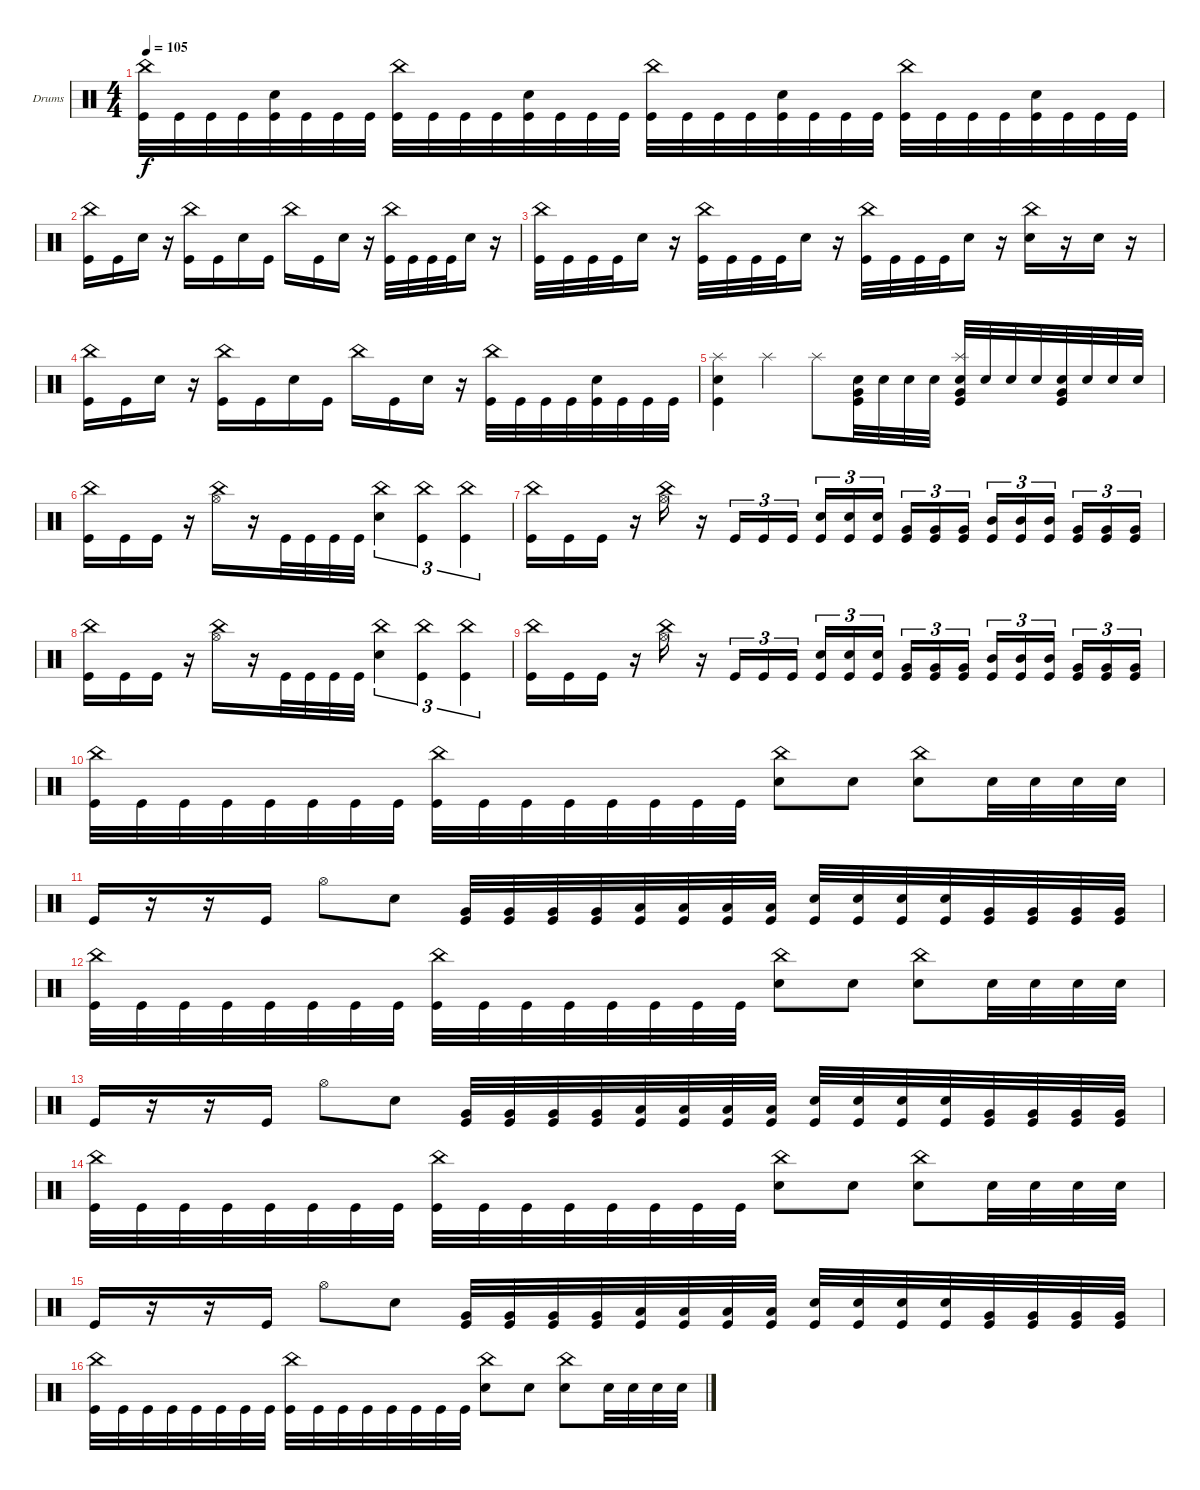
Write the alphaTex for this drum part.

\bracketExtendMode groupsimilarinstruments
\firstSystemTrackNameOrientation horizontal
\otherSystemsTrackNameOrientation horizontal
\track ("Drumkit" "Drums") {instrument percussion}
\staff {score}
\articulation defaults
\ts (4 4)
\tempo 105
\clef neutral
\ks c
("China (hit)" "Kick (hit)").32{dy f} "Kick (hit)".32 "Kick (hit)".32 "Kick (hit)".32 ("Snare (hit) 2" "Kick (hit)").32 "Kick (hit)".32 "Kick (hit)".32 "Kick (hit)".32 ("China (hit)" "Kick (hit)").32 "Kick (hit)".32 "Kick (hit)".32 "Kick (hit)".32 ("Snare (hit) 2" "Kick (hit)").32 "Kick (hit)".32 "Kick (hit)".32 "Kick (hit)".32 ("China (hit)" "Kick (hit)").32 "Kick (hit)".32 "Kick (hit)".32 "Kick (hit)".32 ("Snare (hit) 2" "Kick (hit)").32 "Kick (hit)".32 "Kick (hit)".32 "Kick (hit)".32 ("China (hit)" "Kick (hit)").32 "Kick (hit)".32 "Kick (hit)".32 "Kick (hit)".32 ("Snare (hit) 2" "Kick (hit)").32 "Kick (hit)".32 "Kick (hit)".32 "Kick (hit)".32 |
("China (hit)" "Kick (hit)").16 "Kick (hit)".16 "Snare (hit) 2".16 r.16 ("China (hit)" "Kick (hit)").16 "Kick (hit)".16 "Snare (hit) 2".16 "Kick (hit)".16 "China (hit)".16 "Kick (hit)".16 "Snare (hit) 2".16 r.16 ("China (hit)" "Kick (hit)").32 "Kick (hit)".32 "Kick (hit)".32 "Kick (hit)".32 "Snare (hit) 2".16 r.16 |
("China (hit)" "Kick (hit)").32 "Kick (hit)".32 "Kick (hit)".32 "Kick (hit)".32 "Snare (hit) 2".16 r.16 ("China (hit)" "Kick (hit)").32 "Kick (hit)".32 "Kick (hit)".32 "Kick (hit)".32 "Snare (hit) 2".16 r.16 ("China (hit)" "Kick (hit)").32 "Kick (hit)".32 "Kick (hit)".32 "Kick (hit)".32 "Snare (hit) 2".16 r.16 ("China (hit)" "Snare (hit) 2").16 r.16 "Snare (hit) 2".16 r.16 |
("China (hit)" "Kick (hit)").16 "Kick (hit)".16 "Snare (hit) 2".16 r.16 ("China (hit)" "Kick (hit)").16 "Kick (hit)".16 "Snare (hit) 2".16 "Kick (hit)".16 "China (hit)".16 "Kick (hit)".16 "Snare (hit) 2".16 r.16 ("China (hit)" "Kick (hit)").32 "Kick (hit)".32 "Kick (hit)".32 "Kick (hit)".32 ("Snare (hit) 2" "Kick (hit)").32 "Kick (hit)".32 "Kick (hit)".32 "Kick (hit)".32 |
("Splash (hit)" "Snare (hit) 2" "Kick (hit)").4 "Splash (hit)".4 "Splash (hit)".8 ("Very Low Tom (hit)" "Snare (hit) 2" "Kick (hit)").32 "Snare (hit) 2".32 "Snare (hit) 2".32 "Snare (hit) 2".32 ("Splash (hit)" "Very Low Tom (hit)" "Snare (hit) 2" "Kick (hit)").32 "Snare (hit) 2".32 "Snare (hit) 2".32 "Snare (hit) 2".32 ("Very Low Tom (hit)" "Snare (hit) 2" "Kick (hit)").32 "Snare (hit) 2".32 "Snare (hit) 2".32 "Snare (hit) 2".32 |
("China (hit)" "Kick (hit)").16 "Kick (hit)".16 "Kick (hit)".16 r.16 ("China (hit)" "Hi-Hat (open)").16 r.16 "Kick (hit)".32 "Kick (hit)".32 "Kick (hit)".32 "Kick (hit)".32 ("China (hit)" "Snare (hit) 2").4{tu (3 2)} ("China (hit)" "Kick (hit)").4{tu (3 2)} ("China (hit)" "Kick (hit)").4{tu (3 2)} |
("China (hit)" "Kick (hit)").16 "Kick (hit)".16 "Kick (hit)".16 r.16 ("China (hit)" "Hi-Hat (open)").16 r.16 "Kick (hit)".16{tu (3 2)} "Kick (hit)".16{tu (3 2)} "Kick (hit)".16{tu (3 2)} ("Snare (hit) 2" "Kick (hit)").16{tu (3 2)} ("Snare (hit) 2" "Kick (hit)").16{tu (3 2)} ("Snare (hit) 2" "Kick (hit)").16{tu (3 2)} ("Very Low Tom (hit)" "Kick (hit)").16{tu (3 2)} ("Very Low Tom (hit)" "Kick (hit)").16{tu (3 2)} ("Very Low Tom (hit)" "Kick (hit)").16{tu (3 2)} ("Mid Tom (hit)" "Kick (hit)").16{tu (3 2)} ("Mid Tom (hit)" "Kick (hit)").16{tu (3 2)} ("Mid Tom (hit)" "Kick (hit)").16{tu (3 2)} ("Very Low Tom (hit)" "Kick (hit)").16{tu (3 2)} ("Very Low Tom (hit)" "Kick (hit)").16{tu (3 2)} ("Very Low Tom (hit)" "Kick (hit)").16{tu (3 2)} |
("China (hit)" "Kick (hit)").16 "Kick (hit)".16 "Kick (hit)".16 r.16 ("China (hit)" "Hi-Hat (open)").16 r.16 "Kick (hit)".32 "Kick (hit)".32 "Kick (hit)".32 "Kick (hit)".32 ("China (hit)" "Snare (hit) 2").4{tu (3 2)} ("China (hit)" "Kick (hit)").4{tu (3 2)} ("China (hit)" "Kick (hit)").4{tu (3 2)} |
("China (hit)" "Kick (hit)").16 "Kick (hit)".16 "Kick (hit)".16 r.16 ("China (hit)" "Hi-Hat (open)").16 r.16 "Kick (hit)".16{tu (3 2)} "Kick (hit)".16{tu (3 2)} "Kick (hit)".16{tu (3 2)} ("Snare (hit) 2" "Kick (hit)").16{tu (3 2)} ("Snare (hit) 2" "Kick (hit)").16{tu (3 2)} ("Snare (hit) 2" "Kick (hit)").16{tu (3 2)} ("Very Low Tom (hit)" "Kick (hit)").16{tu (3 2)} ("Very Low Tom (hit)" "Kick (hit)").16{tu (3 2)} ("Very Low Tom (hit)" "Kick (hit)").16{tu (3 2)} ("Mid Tom (hit)" "Kick (hit)").16{tu (3 2)} ("Mid Tom (hit)" "Kick (hit)").16{tu (3 2)} ("Mid Tom (hit)" "Kick (hit)").16{tu (3 2)} ("Very Low Tom (hit)" "Kick (hit)").16{tu (3 2)} ("Very Low Tom (hit)" "Kick (hit)").16{tu (3 2)} ("Very Low Tom (hit)" "Kick (hit)").16{tu (3 2)} |
("China (hit)" "Kick (hit)").32 "Kick (hit)".32 "Kick (hit)".32 "Kick (hit)".32 "Kick (hit)".32 "Kick (hit)".32 "Kick (hit)".32 "Kick (hit)".32 ("China (hit)" "Kick (hit)").32 "Kick (hit)".32 "Kick (hit)".32 "Kick (hit)".32 "Kick (hit)".32 "Kick (hit)".32 "Kick (hit)".32 "Kick (hit)".32 ("China (hit)" "Snare (hit) 2").8 "Snare (hit) 2".8 ("China (hit)" "Snare (hit) 2").8 "Snare (hit) 2".32 "Snare (hit) 2".32 "Snare (hit) 2".32 "Snare (hit) 2".32 |
"Kick (hit)".16 r.16 r.16 "Kick (hit)".16 "Hi-Hat (open)".8 "Snare (hit) 2".8 ("Very Low Tom (hit)" "Kick (hit)").32 ("Very Low Tom (hit)" "Kick (hit)").32 ("Very Low Tom (hit)" "Kick (hit)").32 ("Very Low Tom (hit)" "Kick (hit)").32 ("Low Tom (hit)" "Kick (hit)").32 ("Low Tom (hit)" "Kick (hit)").32 ("Low Tom (hit)" "Kick (hit)").32 ("Low Tom (hit)" "Kick (hit)").32 ("Snare (hit) 2" "Kick (hit)").32 ("Snare (hit) 2" "Kick (hit)").32 ("Snare (hit) 2" "Kick (hit)").32 ("Snare (hit) 2" "Kick (hit)").32 ("Very Low Tom (hit)" "Kick (hit)").32 ("Very Low Tom (hit)" "Kick (hit)").32 ("Very Low Tom (hit)" "Kick (hit)").32 ("Very Low Tom (hit)" "Kick (hit)").32 |
("China (hit)" "Kick (hit)").32 "Kick (hit)".32 "Kick (hit)".32 "Kick (hit)".32 "Kick (hit)".32 "Kick (hit)".32 "Kick (hit)".32 "Kick (hit)".32 ("China (hit)" "Kick (hit)").32 "Kick (hit)".32 "Kick (hit)".32 "Kick (hit)".32 "Kick (hit)".32 "Kick (hit)".32 "Kick (hit)".32 "Kick (hit)".32 ("China (hit)" "Snare (hit) 2").8 "Snare (hit) 2".8 ("China (hit)" "Snare (hit) 2").8 "Snare (hit) 2".32 "Snare (hit) 2".32 "Snare (hit) 2".32 "Snare (hit) 2".32 |
"Kick (hit)".16 r.16 r.16 "Kick (hit)".16 "Hi-Hat (open)".8 "Snare (hit) 2".8 ("Very Low Tom (hit)" "Kick (hit)").32 ("Very Low Tom (hit)" "Kick (hit)").32 ("Very Low Tom (hit)" "Kick (hit)").32 ("Very Low Tom (hit)" "Kick (hit)").32 ("Low Tom (hit)" "Kick (hit)").32 ("Low Tom (hit)" "Kick (hit)").32 ("Low Tom (hit)" "Kick (hit)").32 ("Low Tom (hit)" "Kick (hit)").32 ("Snare (hit) 2" "Kick (hit)").32 ("Snare (hit) 2" "Kick (hit)").32 ("Snare (hit) 2" "Kick (hit)").32 ("Snare (hit) 2" "Kick (hit)").32 ("Very Low Tom (hit)" "Kick (hit)").32 ("Very Low Tom (hit)" "Kick (hit)").32 ("Very Low Tom (hit)" "Kick (hit)").32 ("Very Low Tom (hit)" "Kick (hit)").32 |
("China (hit)" "Kick (hit)").32 "Kick (hit)".32 "Kick (hit)".32 "Kick (hit)".32 "Kick (hit)".32 "Kick (hit)".32 "Kick (hit)".32 "Kick (hit)".32 ("China (hit)" "Kick (hit)").32 "Kick (hit)".32 "Kick (hit)".32 "Kick (hit)".32 "Kick (hit)".32 "Kick (hit)".32 "Kick (hit)".32 "Kick (hit)".32 ("China (hit)" "Snare (hit) 2").8 "Snare (hit) 2".8 ("China (hit)" "Snare (hit) 2").8 "Snare (hit) 2".32 "Snare (hit) 2".32 "Snare (hit) 2".32 "Snare (hit) 2".32 |
"Kick (hit)".16 r.16 r.16 "Kick (hit)".16 "Hi-Hat (open)".8 "Snare (hit) 2".8 ("Very Low Tom (hit)" "Kick (hit)").32 ("Very Low Tom (hit)" "Kick (hit)").32 ("Very Low Tom (hit)" "Kick (hit)").32 ("Very Low Tom (hit)" "Kick (hit)").32 ("Low Tom (hit)" "Kick (hit)").32 ("Low Tom (hit)" "Kick (hit)").32 ("Low Tom (hit)" "Kick (hit)").32 ("Low Tom (hit)" "Kick (hit)").32 ("Snare (hit) 2" "Kick (hit)").32 ("Snare (hit) 2" "Kick (hit)").32 ("Snare (hit) 2" "Kick (hit)").32 ("Snare (hit) 2" "Kick (hit)").32 ("Very Low Tom (hit)" "Kick (hit)").32 ("Very Low Tom (hit)" "Kick (hit)").32 ("Very Low Tom (hit)" "Kick (hit)").32 ("Very Low Tom (hit)" "Kick (hit)").32 |
("China (hit)" "Kick (hit)").32 "Kick (hit)".32 "Kick (hit)".32 "Kick (hit)".32 "Kick (hit)".32 "Kick (hit)".32 "Kick (hit)".32 "Kick (hit)".32 ("China (hit)" "Kick (hit)").32 "Kick (hit)".32 "Kick (hit)".32 "Kick (hit)".32 "Kick (hit)".32 "Kick (hit)".32 "Kick (hit)".32 "Kick (hit)".32 ("China (hit)" "Snare (hit) 2").8 "Snare (hit) 2".8 ("China (hit)" "Snare (hit) 2").8 "Snare (hit) 2".32 "Snare (hit) 2".32 "Snare (hit) 2".32 "Snare (hit) 2".32
